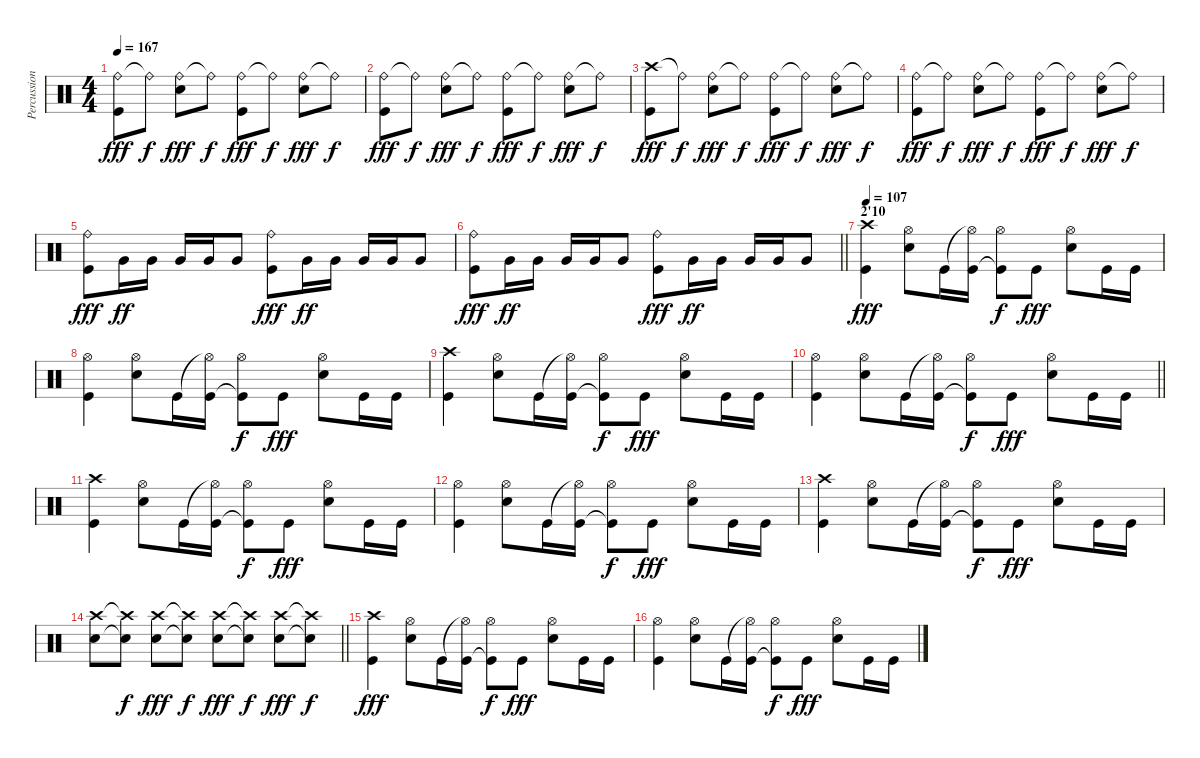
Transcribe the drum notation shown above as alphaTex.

\track ("Percussions" "Percussion") {instrument percussion}
\staff {score}
\articulation defaults
\ts (4 4)
\tempo 167
\clef neutral
\ks c
("Ride (bell)" "Kick (hit)").8{dy fff} "Ride (bell)"{t}.8{dy f} ("Ride (bell)" "Electric Snare (hit)").8{dy fff} "Ride (bell)"{t}.8{dy f} ("Ride (bell)" "Kick (hit)").8{dy fff} "Ride (bell)"{t}.8{dy f} ("Ride (bell)" "Electric Snare (hit)").8{dy fff} "Ride (bell)"{t}.8{dy f} |
("Ride (bell)" "Kick (hit)").8{dy fff} "Ride (bell)"{t}.8{dy f} ("Ride (bell)" "Electric Snare (hit)").8{dy fff} "Ride (bell)"{t}.8{dy f} ("Ride (bell)" "Kick (hit)").8{dy fff} "Ride (bell)"{t}.8{dy f} ("Ride (bell)" "Electric Snare (hit)").8{dy fff} "Ride (bell)"{t}.8{dy f} |
("Crash high (hit)" "Kick (hit)").8{dy fff} "Ride (bell)"{t}.8{dy f} ("Ride (bell)" "Electric Snare (hit)").8{dy fff} "Ride (bell)"{t}.8{dy f} ("Ride (bell)" "Kick (hit)").8{dy fff} "Ride (bell)"{t}.8{dy f} ("Ride (bell)" "Electric Snare (hit)").8{dy fff} "Ride (bell)"{t}.8{dy f} |
("Ride (bell)" "Kick (hit)").8{dy fff} "Ride (bell)"{t}.8{dy f} ("Ride (bell)" "Electric Snare (hit)").8{dy fff} "Ride (bell)"{t}.8{dy f} ("Ride (bell)" "Kick (hit)").8{dy fff} "Ride (bell)"{t}.8{dy f} ("Ride (bell)" "Electric Snare (hit)").8{dy fff} "Ride (bell)"{t}.8{dy f} |
("Ride (bell)" "Kick (hit)").8{dy fff} "Very Low Tom (hit)".16{dy ff} "Very Low Tom (hit)".16 "Very Low Tom (hit)".16 "Very Low Tom (hit)".16 "Very Low Tom (hit)".8 ("Ride (bell)" "Kick (hit)").8{dy fff} "Very Low Tom (hit)".16{dy ff} "Very Low Tom (hit)".16 "Very Low Tom (hit)".16 "Very Low Tom (hit)".16 "Very Low Tom (hit)".8 |
\barLineRight lightlight
("Ride (bell)" "Kick (hit)").8{dy fff} "Very Low Tom (hit)".16{dy ff} "Very Low Tom (hit)".16 "Very Low Tom (hit)".16 "Very Low Tom (hit)".16 "Very Low Tom (hit)".8 ("Ride (bell)" "Kick (hit)").8{dy fff} "Very Low Tom (hit)".16{dy ff} "Very Low Tom (hit)".16 "Very Low Tom (hit)".16 "Very Low Tom (hit)".16 "Very Low Tom (hit)".8 |
\section ("" "2'10")
\tempo 107
("Crash high (hit)" "Kick (hit)").4{dy fff} ("Hi-Hat (open)" "Electric Snare (hit)").8 "Kick (hit)".16 ("Hi-Hat (open)"{t} "Kick (hit)").16 ("Hi-Hat (open)" "Kick (hit)"{t}).8{dy f} "Kick (hit)".8{dy fff} ("Hi-Hat (open)" "Electric Snare (hit)").8 "Kick (hit)".16 "Kick (hit)".16 |
("Hi-Hat (open)" "Kick (hit)").4 ("Hi-Hat (open)" "Electric Snare (hit)").8 "Kick (hit)".16 ("Hi-Hat (open)"{t} "Kick (hit)").16 ("Hi-Hat (open)" "Kick (hit)"{t}).8{dy f} "Kick (hit)".8{dy fff} ("Hi-Hat (open)" "Electric Snare (hit)").8 "Kick (hit)".16 "Kick (hit)".16 |
("Crash high (hit)" "Kick (hit)").4 ("Hi-Hat (open)" "Electric Snare (hit)").8 "Kick (hit)".16 ("Hi-Hat (open)"{t} "Kick (hit)").16 ("Hi-Hat (open)" "Kick (hit)"{t}).8{dy f} "Kick (hit)".8{dy fff} ("Hi-Hat (open)" "Electric Snare (hit)").8 "Kick (hit)".16 "Kick (hit)".16 |
\barLineRight lightlight
("Hi-Hat (open)" "Kick (hit)").4 ("Hi-Hat (open)" "Electric Snare (hit)").8 "Kick (hit)".16 ("Hi-Hat (open)"{t} "Kick (hit)").16 ("Hi-Hat (open)" "Kick (hit)"{t}).8{dy f} "Kick (hit)".8{dy fff} ("Hi-Hat (open)" "Electric Snare (hit)").8 "Kick (hit)".16 "Kick (hit)".16 |
("Crash high (hit)" "Kick (hit)").4 ("Hi-Hat (open)" "Electric Snare (hit)").8 "Kick (hit)".16 ("Hi-Hat (open)"{t} "Kick (hit)").16 ("Hi-Hat (open)" "Kick (hit)"{t}).8{dy f} "Kick (hit)".8{dy fff} ("Hi-Hat (open)" "Electric Snare (hit)").8 "Kick (hit)".16 "Kick (hit)".16 |
("Hi-Hat (open)" "Kick (hit)").4 ("Hi-Hat (open)" "Electric Snare (hit)").8 "Kick (hit)".16 ("Hi-Hat (open)"{t} "Kick (hit)").16 ("Hi-Hat (open)" "Kick (hit)"{t}).8{dy f} "Kick (hit)".8{dy fff} ("Hi-Hat (open)" "Electric Snare (hit)").8 "Kick (hit)".16 "Kick (hit)".16 |
("Crash high (hit)" "Kick (hit)").4 ("Hi-Hat (open)" "Electric Snare (hit)").8 "Kick (hit)".16 ("Hi-Hat (open)"{t} "Kick (hit)").16 ("Hi-Hat (open)" "Kick (hit)"{t}).8{dy f} "Kick (hit)".8{dy fff} ("Hi-Hat (open)" "Electric Snare (hit)").8 "Kick (hit)".16 "Kick (hit)".16 |
\barLineRight lightlight
("Crash high (hit)" "Electric Snare (hit)").8 ("Crash high (hit)"{t} "Electric Snare (hit)"{t}).8{dy f} ("Crash high (hit)" "Electric Snare (hit)").8{dy fff} ("Crash high (hit)"{t} "Electric Snare (hit)"{t}).8{dy f} ("Crash high (hit)" "Electric Snare (hit)").8{dy fff} ("Crash high (hit)"{t} "Electric Snare (hit)"{t}).8{dy f} ("Crash high (hit)" "Electric Snare (hit)").8{dy fff} ("Crash high (hit)"{t} "Electric Snare (hit)"{t}).8{dy f} |
("Crash high (hit)" "Kick (hit)").4{dy fff} ("Hi-Hat (open)" "Electric Snare (hit)").8 "Kick (hit)".16 ("Hi-Hat (open)"{t} "Kick (hit)").16 ("Hi-Hat (open)" "Kick (hit)"{t}).8{dy f} "Kick (hit)".8{dy fff} ("Hi-Hat (open)" "Electric Snare (hit)").8 "Kick (hit)".16 "Kick (hit)".16 |
("Hi-Hat (open)" "Kick (hit)").4 ("Hi-Hat (open)" "Electric Snare (hit)").8 "Kick (hit)".16 ("Hi-Hat (open)"{t} "Kick (hit)").16 ("Hi-Hat (open)" "Kick (hit)"{t}).8{dy f} "Kick (hit)".8{dy fff} ("Hi-Hat (open)" "Electric Snare (hit)").8 "Kick (hit)".16 "Kick (hit)".16
